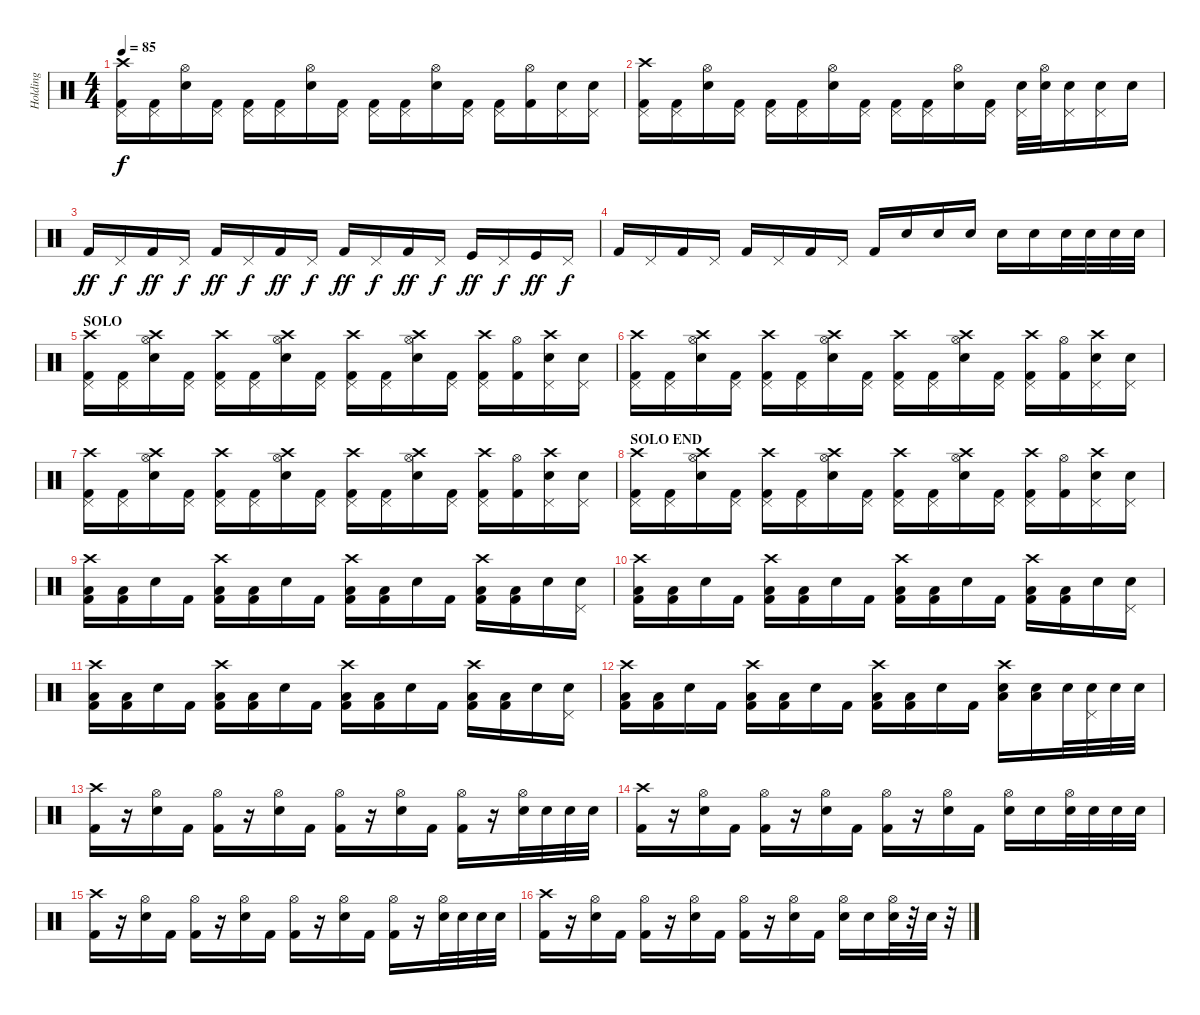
\track ("Holding" "Holding") {instrument percussion}
\staff {score}
\articulation defaults
\ts (4 4)
\tempo 85
\clef neutral
\ks c
("Crash high (hit)" "Pedal Hi-Hat (hit)" "Kick (hit) 2").16{dy f} ("Pedal Hi-Hat (hit)" "Kick (hit) 2").16 ("Hi-Hat (open)" "Electric Snare (hit)").16 ("Pedal Hi-Hat (hit)" "Kick (hit) 2").16 ("Pedal Hi-Hat (hit)" "Kick (hit) 2").16 ("Pedal Hi-Hat (hit)" "Kick (hit) 2").16 ("Hi-Hat (open)" "Electric Snare (hit)").16 ("Pedal Hi-Hat (hit)" "Kick (hit) 2").16 ("Pedal Hi-Hat (hit)" "Kick (hit) 2").16 ("Pedal Hi-Hat (hit)" "Kick (hit) 2").16 ("Hi-Hat (open)" "Electric Snare (hit)").16 ("Pedal Hi-Hat (hit)" "Kick (hit) 2").16 ("Pedal Hi-Hat (hit)" "Kick (hit) 2").16 ("Hi-Hat (open)" "Kick (hit) 2").16 ("Pedal Hi-Hat (hit)" "Electric Snare (hit)").16 ("Pedal Hi-Hat (hit)" "Electric Snare (hit)").16 |
("Crash high (hit)" "Pedal Hi-Hat (hit)" "Kick (hit) 2").16 ("Pedal Hi-Hat (hit)" "Kick (hit) 2").16 ("Hi-Hat (open)" "Electric Snare (hit)").16 ("Pedal Hi-Hat (hit)" "Kick (hit) 2").16 ("Pedal Hi-Hat (hit)" "Kick (hit) 2").16 ("Pedal Hi-Hat (hit)" "Kick (hit) 2").16 ("Hi-Hat (open)" "Electric Snare (hit)").16 ("Pedal Hi-Hat (hit)" "Kick (hit) 2").16 ("Pedal Hi-Hat (hit)" "Kick (hit) 2").16 ("Pedal Hi-Hat (hit)" "Kick (hit) 2").16 ("Hi-Hat (open)" "Electric Snare (hit)").16 ("Pedal Hi-Hat (hit)" "Kick (hit) 2").16 ("Pedal Hi-Hat (hit)" "Electric Snare (hit)").32 ("Hi-Hat (open)" "Electric Snare (hit)").32 ("Pedal Hi-Hat (hit)" "Electric Snare (hit)").16 ("Pedal Hi-Hat (hit)" "Electric Snare (hit)").16 "Electric Snare (hit)".16 |
"Kick (hit) 2".16{dy ff} "Pedal Hi-Hat (hit)".16{dy f} "Kick (hit) 2".16{dy ff} "Pedal Hi-Hat (hit)".16{dy f} "Kick (hit) 2".16{dy ff} "Pedal Hi-Hat (hit)".16{dy f} "Kick (hit) 2".16{dy ff} "Pedal Hi-Hat (hit)".16{dy f} "Kick (hit) 2".16{dy ff} "Pedal Hi-Hat (hit)".16{dy f} "Kick (hit) 2".16{dy ff} "Pedal Hi-Hat (hit)".16{dy f} "Kick (hit)".16{dy ff} "Pedal Hi-Hat (hit)".16{dy f} "Kick (hit)".16{dy ff} "Pedal Hi-Hat (hit)".16{dy f} |
"Kick (hit) 2".16 "Pedal Hi-Hat (hit)".16 "Kick (hit) 2".16 "Pedal Hi-Hat (hit)".16 "Kick (hit) 2".16 "Pedal Hi-Hat (hit)".16 "Kick (hit) 2".16 "Pedal Hi-Hat (hit)".16 "Kick (hit) 2".16 "Electric Snare (hit)".16 "Electric Snare (hit)".16 "Electric Snare (hit)".16 "Electric Snare (hit)".16 "Electric Snare (hit)".16 "Electric Snare (hit)".32 "Electric Snare (hit)".32 "Electric Snare (hit)".32 "Electric Snare (hit)".32 |
\section ("" "SOLO")
("Crash high (hit)" "Pedal Hi-Hat (hit)" "Kick (hit) 2").16 ("Pedal Hi-Hat (hit)" "Kick (hit) 2").16 ("Crash high (hit)" "Hi-Hat (open)" "Electric Snare (hit)").16 ("Pedal Hi-Hat (hit)" "Kick (hit) 2").16 ("Crash high (hit)" "Pedal Hi-Hat (hit)" "Kick (hit) 2").16 ("Pedal Hi-Hat (hit)" "Kick (hit) 2").16 ("Crash high (hit)" "Hi-Hat (open)" "Electric Snare (hit)").16 ("Pedal Hi-Hat (hit)" "Kick (hit) 2").16 ("Crash high (hit)" "Pedal Hi-Hat (hit)" "Kick (hit) 2").16 ("Pedal Hi-Hat (hit)" "Kick (hit) 2").16 ("Crash high (hit)" "Hi-Hat (open)" "Electric Snare (hit)").16 ("Pedal Hi-Hat (hit)" "Kick (hit) 2").16 ("Crash high (hit)" "Pedal Hi-Hat (hit)" "Kick (hit) 2").16 ("Hi-Hat (open)" "Kick (hit) 2").16 ("Crash high (hit)" "Pedal Hi-Hat (hit)" "Electric Snare (hit)").16 ("Pedal Hi-Hat (hit)" "Electric Snare (hit)").16 |
("Crash high (hit)" "Pedal Hi-Hat (hit)" "Kick (hit) 2").16 ("Pedal Hi-Hat (hit)" "Kick (hit) 2").16 ("Crash high (hit)" "Hi-Hat (open)" "Electric Snare (hit)").16 ("Pedal Hi-Hat (hit)" "Kick (hit) 2").16 ("Crash high (hit)" "Pedal Hi-Hat (hit)" "Kick (hit) 2").16 ("Pedal Hi-Hat (hit)" "Kick (hit) 2").16 ("Crash high (hit)" "Hi-Hat (open)" "Electric Snare (hit)").16 ("Pedal Hi-Hat (hit)" "Kick (hit) 2").16 ("Crash high (hit)" "Pedal Hi-Hat (hit)" "Kick (hit) 2").16 ("Pedal Hi-Hat (hit)" "Kick (hit) 2").16 ("Crash high (hit)" "Hi-Hat (open)" "Electric Snare (hit)").16 ("Pedal Hi-Hat (hit)" "Kick (hit) 2").16 ("Crash high (hit)" "Pedal Hi-Hat (hit)" "Kick (hit) 2").16 ("Hi-Hat (open)" "Kick (hit) 2").16 ("Crash high (hit)" "Pedal Hi-Hat (hit)" "Electric Snare (hit)").16 ("Pedal Hi-Hat (hit)" "Electric Snare (hit)").16 |
("Crash high (hit)" "Pedal Hi-Hat (hit)" "Kick (hit) 2").16 ("Pedal Hi-Hat (hit)" "Kick (hit) 2").16 ("Crash high (hit)" "Hi-Hat (open)" "Electric Snare (hit)").16 ("Pedal Hi-Hat (hit)" "Kick (hit) 2").16 ("Crash high (hit)" "Pedal Hi-Hat (hit)" "Kick (hit) 2").16 ("Pedal Hi-Hat (hit)" "Kick (hit) 2").16 ("Crash high (hit)" "Hi-Hat (open)" "Electric Snare (hit)").16 ("Pedal Hi-Hat (hit)" "Kick (hit) 2").16 ("Crash high (hit)" "Pedal Hi-Hat (hit)" "Kick (hit) 2").16 ("Pedal Hi-Hat (hit)" "Kick (hit) 2").16 ("Crash high (hit)" "Hi-Hat (open)" "Electric Snare (hit)").16 ("Pedal Hi-Hat (hit)" "Kick (hit) 2").16 ("Crash high (hit)" "Pedal Hi-Hat (hit)" "Kick (hit) 2").16 ("Hi-Hat (open)" "Kick (hit) 2").16 ("Crash high (hit)" "Pedal Hi-Hat (hit)" "Electric Snare (hit)").16 ("Pedal Hi-Hat (hit)" "Electric Snare (hit)").16 |
\section ("" "SOLO END")
("Crash high (hit)" "Pedal Hi-Hat (hit)" "Kick (hit) 2").16 ("Pedal Hi-Hat (hit)" "Kick (hit) 2").16 ("Crash high (hit)" "Hi-Hat (open)" "Electric Snare (hit)").16 ("Pedal Hi-Hat (hit)" "Kick (hit) 2").16 ("Crash high (hit)" "Pedal Hi-Hat (hit)" "Kick (hit) 2").16 ("Pedal Hi-Hat (hit)" "Kick (hit) 2").16 ("Crash high (hit)" "Hi-Hat (open)" "Electric Snare (hit)").16 ("Pedal Hi-Hat (hit)" "Kick (hit) 2").16 ("Crash high (hit)" "Pedal Hi-Hat (hit)" "Kick (hit) 2").16 ("Pedal Hi-Hat (hit)" "Kick (hit) 2").16 ("Crash high (hit)" "Hi-Hat (open)" "Electric Snare (hit)").16 ("Pedal Hi-Hat (hit)" "Kick (hit) 2").16 ("Crash high (hit)" "Pedal Hi-Hat (hit)" "Kick (hit) 2").16 ("Hi-Hat (open)" "Kick (hit) 2").16 ("Crash high (hit)" "Pedal Hi-Hat (hit)" "Electric Snare (hit)").16 ("Pedal Hi-Hat (hit)" "Electric Snare (hit)").16 |
("Crash high (hit)" "Low Tom (hit)" "Kick (hit) 2").16 ("Low Tom (hit)" "Kick (hit) 2").16 "Electric Snare (hit)".16 "Kick (hit) 2".16 ("Crash high (hit)" "Low Tom (hit)" "Kick (hit) 2").16 ("Low Tom (hit)" "Kick (hit) 2").16 "Electric Snare (hit)".16 "Kick (hit) 2".16 ("Crash high (hit)" "Low Tom (hit)" "Kick (hit) 2").16 ("Low Tom (hit)" "Kick (hit) 2").16 "Electric Snare (hit)".16 "Kick (hit) 2".16 ("Crash high (hit)" "Low Tom (hit)" "Kick (hit) 2").16 ("Low Tom (hit)" "Kick (hit) 2").16 "Electric Snare (hit)".16 ("Pedal Hi-Hat (hit)" "Electric Snare (hit)").16 |
("Crash high (hit)" "Low Tom (hit)" "Kick (hit) 2").16 ("Low Tom (hit)" "Kick (hit) 2").16 "Electric Snare (hit)".16 "Kick (hit) 2".16 ("Crash high (hit)" "Low Tom (hit)" "Kick (hit) 2").16 ("Low Tom (hit)" "Kick (hit) 2").16 "Electric Snare (hit)".16 "Kick (hit) 2".16 ("Crash high (hit)" "Low Tom (hit)" "Kick (hit) 2").16 ("Low Tom (hit)" "Kick (hit) 2").16 "Electric Snare (hit)".16 "Kick (hit) 2".16 ("Crash high (hit)" "Low Tom (hit)" "Kick (hit) 2").16 ("Low Tom (hit)" "Kick (hit) 2").16 "Electric Snare (hit)".16 ("Pedal Hi-Hat (hit)" "Electric Snare (hit)").16 |
("Crash high (hit)" "Low Tom (hit)" "Kick (hit) 2").16 ("Low Tom (hit)" "Kick (hit) 2").16 "Electric Snare (hit)".16 "Kick (hit) 2".16 ("Crash high (hit)" "Low Tom (hit)" "Kick (hit) 2").16 ("Low Tom (hit)" "Kick (hit) 2").16 "Electric Snare (hit)".16 "Kick (hit) 2".16 ("Crash high (hit)" "Low Tom (hit)" "Kick (hit) 2").16 ("Low Tom (hit)" "Kick (hit) 2").16 "Electric Snare (hit)".16 "Kick (hit) 2".16 ("Crash high (hit)" "Low Tom (hit)" "Kick (hit) 2").16 ("Low Tom (hit)" "Kick (hit) 2").16 "Electric Snare (hit)".16 ("Pedal Hi-Hat (hit)" "Electric Snare (hit)").16 |
("Crash high (hit)" "Low Tom (hit)" "Kick (hit) 2").16 ("Low Tom (hit)" "Kick (hit) 2").16 "Electric Snare (hit)".16 "Kick (hit) 2".16 ("Crash high (hit)" "Low Tom (hit)" "Kick (hit) 2").16 ("Low Tom (hit)" "Kick (hit) 2").16 "Electric Snare (hit)".16 "Kick (hit) 2".16 ("Crash high (hit)" "Low Tom (hit)" "Kick (hit) 2").16 ("Low Tom (hit)" "Kick (hit) 2").16 "Electric Snare (hit)".16 "Kick (hit) 2".16 ("Crash high (hit)" "Low Tom (hit)" "Electric Snare (hit)").16 ("Low Tom (hit)" "Electric Snare (hit)").16 "Electric Snare (hit)".32 ("Pedal Hi-Hat (hit)" "Electric Snare (hit)").32 "Electric Snare (hit)".32 "Electric Snare (hit)".32 |
("Crash high (hit)" "Kick (hit) 2").16 r.16 ("Hi-Hat (open)" "Electric Snare (hit)").16 "Kick (hit) 2".16 ("Hi-Hat (open)" "Kick (hit) 2").16 r.16 ("Hi-Hat (open)" "Electric Snare (hit)").16 "Kick (hit) 2".16 ("Hi-Hat (open)" "Kick (hit) 2").16 r.16 ("Hi-Hat (open)" "Electric Snare (hit)").16 "Kick (hit) 2".16 ("Hi-Hat (open)" "Kick (hit) 2").16 r.16 ("Hi-Hat (open)" "Electric Snare (hit)").32 "Electric Snare (hit)".32 "Electric Snare (hit)".32 "Electric Snare (hit)".32 |
("Crash high (hit)" "Kick (hit) 2").16 r.16 ("Hi-Hat (open)" "Electric Snare (hit)").16 "Kick (hit) 2".16 ("Hi-Hat (open)" "Kick (hit) 2").16 r.16 ("Hi-Hat (open)" "Electric Snare (hit)").16 "Kick (hit) 2".16 ("Hi-Hat (open)" "Kick (hit) 2").16 r.16 ("Hi-Hat (open)" "Electric Snare (hit)").16 "Kick (hit) 2".16 ("Hi-Hat (open)" "Electric Snare (hit)").16 "Electric Snare (hit)".16 ("Hi-Hat (open)" "Electric Snare (hit)").32 "Electric Snare (hit)".32 "Electric Snare (hit)".32 "Electric Snare (hit)".32 |
("Crash high (hit)" "Kick (hit) 2").16 r.16 ("Hi-Hat (open)" "Electric Snare (hit)").16 "Kick (hit) 2".16 ("Hi-Hat (open)" "Kick (hit) 2").16 r.16 ("Hi-Hat (open)" "Electric Snare (hit)").16 "Kick (hit) 2".16 ("Hi-Hat (open)" "Kick (hit) 2").16 r.16 ("Hi-Hat (open)" "Electric Snare (hit)").16 "Kick (hit) 2".16 ("Hi-Hat (open)" "Kick (hit) 2").16 r.16 ("Hi-Hat (open)" "Electric Snare (hit)").32 "Electric Snare (hit)".32 "Electric Snare (hit)".32 "Electric Snare (hit)".32 |
("Crash high (hit)" "Kick (hit) 2").16 r.16 ("Hi-Hat (open)" "Electric Snare (hit)").16 "Kick (hit) 2".16 ("Hi-Hat (open)" "Kick (hit) 2").16 r.16 ("Hi-Hat (open)" "Electric Snare (hit)").16 "Kick (hit) 2".16 ("Hi-Hat (open)" "Kick (hit) 2").16 r.16 ("Hi-Hat (open)" "Electric Snare (hit)").16 "Kick (hit) 2".16 ("Hi-Hat (open)" "Electric Snare (hit)").16 "Electric Snare (hit)".16 ("Hi-Hat (open)" "Electric Snare (hit)").32 r.32 "Electric Snare (hit)".32 r.32
